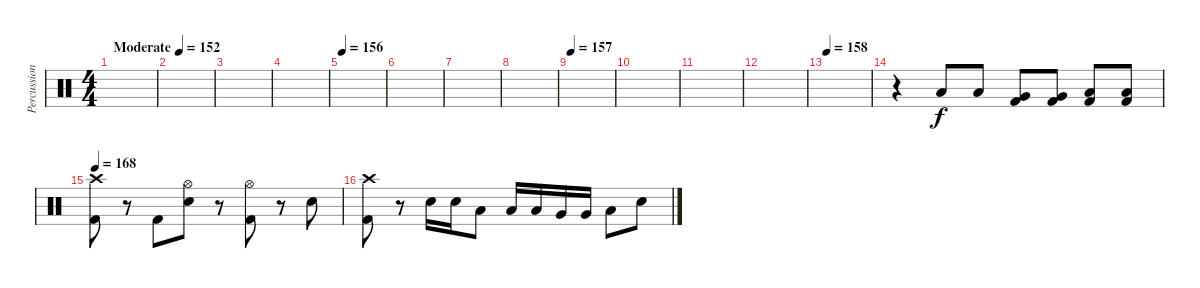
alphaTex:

\track ("Percussion" "Percussion") {instrument percussion}
\staff {score}
\articulation defaults
\ts (4 4)
\tempo (152 "Moderate")
\tempo 154
\tempo (152 "Moderate")
\clef neutral
\ks c
|
|
|
|
\tempo 156
|
|
|
|
\tempo 157
|
|
|
|
\tempo 158
|
r.4 "Low Tom (hit)".8 "Low Tom (hit)".8 ("Very Low Tom (hit)" "Kick (hit) 2").8 ("Very Low Tom (hit)" "Kick (hit) 2").8 ("Low Tom (hit)" "Kick (hit) 2").8 ("Low Tom (hit)" "Kick (hit) 2").8 |
\tempo 168
("Crash high (hit)" "Kick (hit) 2").8 r.8 "Kick (hit) 2".8 ("Hi-Hat (open)" "Snare (hit) 2").8 r.8 ("Hi-Hat (open)" "Kick (hit) 2").8 r.8 "Snare (hit) 2".8 |
("Crash high (hit)" "Kick (hit) 2").8 r.8 "Snare (hit) 2".16 "Snare (hit) 2".16 "Low Tom (hit)".8 "Low Tom (hit)".16 "Low Tom (hit)".16 "Very Low Tom (hit)".16 "Very Low Tom (hit)".16 "Low Tom (hit)".8 "Snare (hit) 2".8
